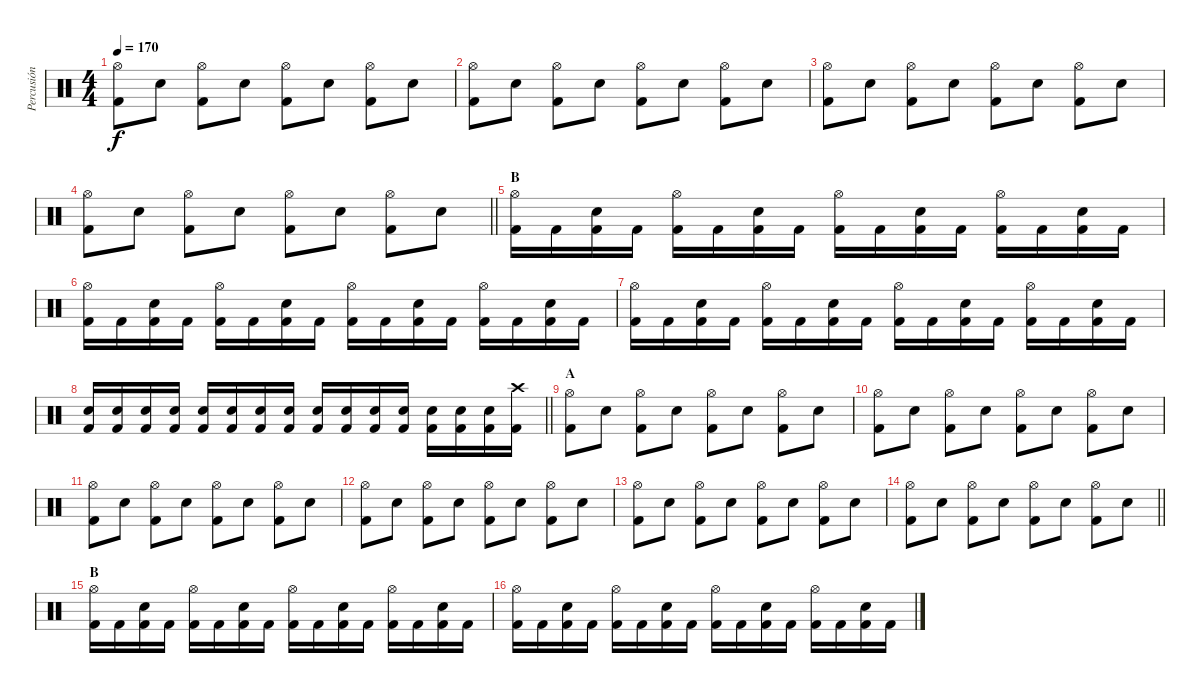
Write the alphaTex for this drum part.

\track ("Percusión" "Percusión") {instrument percussion}
\staff {score}
\articulation defaults
\ts (4 4)
\tempo 170
\clef neutral
\ks c
("Hi-Hat (open)" "Kick (hit) 2").8{dy f} "Snare (hit) 2".8 ("Hi-Hat (open)" "Kick (hit) 2").8 "Snare (hit) 2".8 ("Hi-Hat (open)" "Kick (hit) 2").8 "Snare (hit) 2".8 ("Hi-Hat (open)" "Kick (hit) 2").8 "Snare (hit) 2".8 |
("Hi-Hat (open)" "Kick (hit) 2").8 "Snare (hit) 2".8 ("Hi-Hat (open)" "Kick (hit) 2").8 "Snare (hit) 2".8 ("Hi-Hat (open)" "Kick (hit) 2").8 "Snare (hit) 2".8 ("Hi-Hat (open)" "Kick (hit) 2").8 "Snare (hit) 2".8 |
("Hi-Hat (open)" "Kick (hit) 2").8 "Snare (hit) 2".8 ("Hi-Hat (open)" "Kick (hit) 2").8 "Snare (hit) 2".8 ("Hi-Hat (open)" "Kick (hit) 2").8 "Snare (hit) 2".8 ("Hi-Hat (open)" "Kick (hit) 2").8 "Snare (hit) 2".8 |
\barLineRight lightlight
("Hi-Hat (open)" "Kick (hit) 2").8 "Snare (hit) 2".8 ("Hi-Hat (open)" "Kick (hit) 2").8 "Snare (hit) 2".8 ("Hi-Hat (open)" "Kick (hit) 2").8 "Snare (hit) 2".8 ("Hi-Hat (open)" "Kick (hit) 2").8 "Snare (hit) 2".8 |
\section ("" "B")
("Hi-Hat (open)" "Kick (hit) 2").16 "Kick (hit) 2".16 ("Snare (hit) 2" "Kick (hit) 2").16 "Kick (hit) 2".16 ("Hi-Hat (open)" "Kick (hit) 2").16 "Kick (hit) 2".16 ("Snare (hit) 2" "Kick (hit) 2").16 "Kick (hit) 2".16 ("Hi-Hat (open)" "Kick (hit) 2").16 "Kick (hit) 2".16 ("Snare (hit) 2" "Kick (hit) 2").16 "Kick (hit) 2".16 ("Hi-Hat (open)" "Kick (hit) 2").16 "Kick (hit) 2".16 ("Snare (hit) 2" "Kick (hit) 2").16 "Kick (hit) 2".16 |
("Hi-Hat (open)" "Kick (hit) 2").16 "Kick (hit) 2".16 ("Snare (hit) 2" "Kick (hit) 2").16 "Kick (hit) 2".16 ("Hi-Hat (open)" "Kick (hit) 2").16 "Kick (hit) 2".16 ("Snare (hit) 2" "Kick (hit) 2").16 "Kick (hit) 2".16 ("Hi-Hat (open)" "Kick (hit) 2").16 "Kick (hit) 2".16 ("Snare (hit) 2" "Kick (hit) 2").16 "Kick (hit) 2".16 ("Hi-Hat (open)" "Kick (hit) 2").16 "Kick (hit) 2".16 ("Snare (hit) 2" "Kick (hit) 2").16 "Kick (hit) 2".16 |
("Hi-Hat (open)" "Kick (hit) 2").16 "Kick (hit) 2".16 ("Snare (hit) 2" "Kick (hit) 2").16 "Kick (hit) 2".16 ("Hi-Hat (open)" "Kick (hit) 2").16 "Kick (hit) 2".16 ("Snare (hit) 2" "Kick (hit) 2").16 "Kick (hit) 2".16 ("Hi-Hat (open)" "Kick (hit) 2").16 "Kick (hit) 2".16 ("Snare (hit) 2" "Kick (hit) 2").16 "Kick (hit) 2".16 ("Hi-Hat (open)" "Kick (hit) 2").16 "Kick (hit) 2".16 ("Snare (hit) 2" "Kick (hit) 2").16 "Kick (hit) 2".16 |
\barLineRight lightlight
("Snare (hit) 2" "Kick (hit) 2").16 ("Snare (hit) 2" "Kick (hit) 2").16 ("Snare (hit) 2" "Kick (hit) 2").16 ("Snare (hit) 2" "Kick (hit) 2").16 ("Snare (hit) 2" "Kick (hit) 2").16 ("Snare (hit) 2" "Kick (hit) 2").16 ("Snare (hit) 2" "Kick (hit) 2").16 ("Snare (hit) 2" "Kick (hit) 2").16 ("Snare (hit) 2" "Kick (hit) 2").16 ("Snare (hit) 2" "Kick (hit) 2").16 ("Snare (hit) 2" "Kick (hit) 2").16 ("Snare (hit) 2" "Kick (hit) 2").16 ("Snare (hit) 2" "Kick (hit) 2").16 ("Snare (hit) 2" "Kick (hit) 2").16 ("Snare (hit) 2" "Kick (hit) 2").16 ("Crash high (hit)" "Kick (hit) 2").16 |
\section ("" "A")
("Hi-Hat (open)" "Kick (hit) 2").8 "Snare (hit) 2".8 ("Hi-Hat (open)" "Kick (hit) 2").8 "Snare (hit) 2".8 ("Hi-Hat (open)" "Kick (hit) 2").8 "Snare (hit) 2".8 ("Hi-Hat (open)" "Kick (hit) 2").8 "Snare (hit) 2".8 |
("Hi-Hat (open)" "Kick (hit) 2").8 "Snare (hit) 2".8 ("Hi-Hat (open)" "Kick (hit) 2").8 "Snare (hit) 2".8 ("Hi-Hat (open)" "Kick (hit) 2").8 "Snare (hit) 2".8 ("Hi-Hat (open)" "Kick (hit) 2").8 "Snare (hit) 2".8 |
("Hi-Hat (open)" "Kick (hit) 2").8 "Snare (hit) 2".8 ("Hi-Hat (open)" "Kick (hit) 2").8 "Snare (hit) 2".8 ("Hi-Hat (open)" "Kick (hit) 2").8 "Snare (hit) 2".8 ("Hi-Hat (open)" "Kick (hit) 2").8 "Snare (hit) 2".8 |
("Hi-Hat (open)" "Kick (hit) 2").8 "Snare (hit) 2".8 ("Hi-Hat (open)" "Kick (hit) 2").8 "Snare (hit) 2".8 ("Hi-Hat (open)" "Kick (hit) 2").8 "Snare (hit) 2".8 ("Hi-Hat (open)" "Kick (hit) 2").8 "Snare (hit) 2".8 |
("Hi-Hat (open)" "Kick (hit) 2").8 "Snare (hit) 2".8 ("Hi-Hat (open)" "Kick (hit) 2").8 "Snare (hit) 2".8 ("Hi-Hat (open)" "Kick (hit) 2").8 "Snare (hit) 2".8 ("Hi-Hat (open)" "Kick (hit) 2").8 "Snare (hit) 2".8 |
\barLineRight lightlight
("Hi-Hat (open)" "Kick (hit) 2").8 "Snare (hit) 2".8 ("Hi-Hat (open)" "Kick (hit) 2").8 "Snare (hit) 2".8 ("Hi-Hat (open)" "Kick (hit) 2").8 "Snare (hit) 2".8 ("Hi-Hat (open)" "Kick (hit) 2").8 "Snare (hit) 2".8 |
\section ("" "B")
("Hi-Hat (open)" "Kick (hit) 2").16 "Kick (hit) 2".16 ("Snare (hit) 2" "Kick (hit) 2").16 "Kick (hit) 2".16 ("Hi-Hat (open)" "Kick (hit) 2").16 "Kick (hit) 2".16 ("Snare (hit) 2" "Kick (hit) 2").16 "Kick (hit) 2".16 ("Hi-Hat (open)" "Kick (hit) 2").16 "Kick (hit) 2".16 ("Snare (hit) 2" "Kick (hit) 2").16 "Kick (hit) 2".16 ("Hi-Hat (open)" "Kick (hit) 2").16 "Kick (hit) 2".16 ("Snare (hit) 2" "Kick (hit) 2").16 "Kick (hit) 2".16 |
("Hi-Hat (open)" "Kick (hit) 2").16 "Kick (hit) 2".16 ("Snare (hit) 2" "Kick (hit) 2").16 "Kick (hit) 2".16 ("Hi-Hat (open)" "Kick (hit) 2").16 "Kick (hit) 2".16 ("Snare (hit) 2" "Kick (hit) 2").16 "Kick (hit) 2".16 ("Hi-Hat (open)" "Kick (hit) 2").16 "Kick (hit) 2".16 ("Snare (hit) 2" "Kick (hit) 2").16 "Kick (hit) 2".16 ("Hi-Hat (open)" "Kick (hit) 2").16 "Kick (hit) 2".16 ("Snare (hit) 2" "Kick (hit) 2").16 "Kick (hit) 2".16
